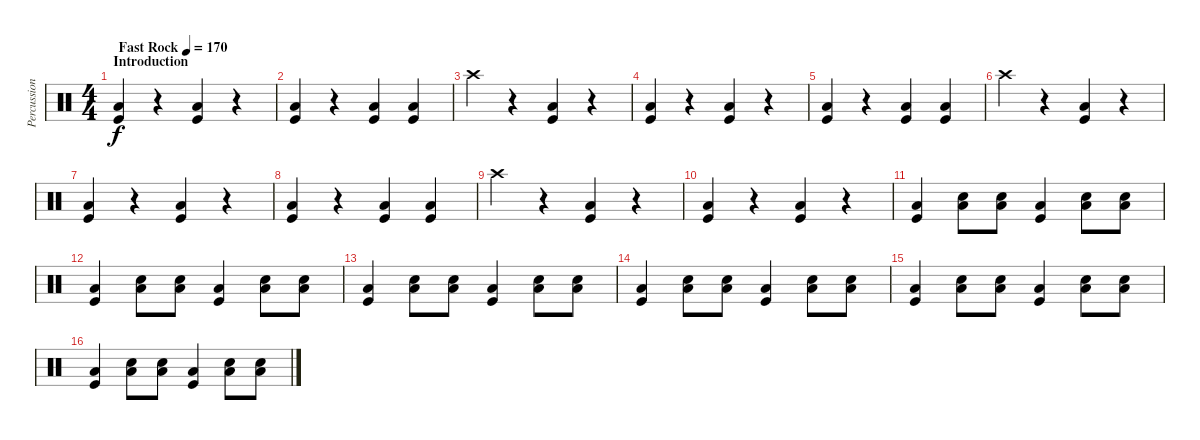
\track ("Percussion" "Percussion") {instrument percussion}
\staff {score}
\articulation defaults
\ts (4 4)
\section ("" "Introduction")
\tempo (170 "Fast Rock")
\clef neutral
\ks c
("Kick (hit)" "Low Tom (hit)").4{dy f} r.4 ("Kick (hit)" "Low Tom (hit)").4 r.4 |
("Kick (hit)" "Low Tom (hit)").4 r.4 ("Kick (hit)" "Low Tom (hit)").4 ("Kick (hit)" "Low Tom (hit)").4 |
"Crash high (hit)".4 r.4 ("Kick (hit)" "Low Tom (hit)").4 r.4 |
("Kick (hit)" "Low Tom (hit)").4 r.4 ("Kick (hit)" "Low Tom (hit)").4 r.4 |
("Kick (hit)" "Low Tom (hit)").4 r.4 ("Kick (hit)" "Low Tom (hit)").4 ("Kick (hit)" "Low Tom (hit)").4 |
"Crash high (hit)".4 r.4 ("Kick (hit)" "Low Tom (hit)").4 r.4 |
("Kick (hit)" "Low Tom (hit)").4 r.4 ("Kick (hit)" "Low Tom (hit)").4 r.4 |
("Kick (hit)" "Low Tom (hit)").4 r.4 ("Kick (hit)" "Low Tom (hit)").4 ("Kick (hit)" "Low Tom (hit)").4 |
"Crash high (hit)".4 r.4 ("Kick (hit)" "Low Tom (hit)").4 r.4 |
("Kick (hit)" "Low Tom (hit)").4 r.4 ("Kick (hit)" "Low Tom (hit)").4 r.4 |
("Kick (hit)" "Low Tom (hit)").4 ("Low Tom (hit)" "Snare (hit) 2").8 ("Low Tom (hit)" "Snare (hit) 2").8 ("Kick (hit)" "Low Tom (hit)").4 ("Low Tom (hit)" "Snare (hit) 2").8 ("Low Tom (hit)" "Snare (hit) 2").8 |
("Kick (hit)" "Low Tom (hit)").4 ("Low Tom (hit)" "Snare (hit) 2").8 ("Low Tom (hit)" "Snare (hit) 2").8 ("Kick (hit)" "Low Tom (hit)").4 ("Low Tom (hit)" "Snare (hit) 2").8 ("Low Tom (hit)" "Snare (hit) 2").8 |
("Kick (hit)" "Low Tom (hit)").4 ("Low Tom (hit)" "Snare (hit) 2").8 ("Low Tom (hit)" "Snare (hit) 2").8 ("Kick (hit)" "Low Tom (hit)").4 ("Low Tom (hit)" "Snare (hit) 2").8 ("Low Tom (hit)" "Snare (hit) 2").8 |
("Kick (hit)" "Low Tom (hit)").4 ("Low Tom (hit)" "Snare (hit) 2").8 ("Low Tom (hit)" "Snare (hit) 2").8 ("Kick (hit)" "Low Tom (hit)").4 ("Low Tom (hit)" "Snare (hit) 2").8 ("Low Tom (hit)" "Snare (hit) 2").8 |
("Kick (hit)" "Low Tom (hit)").4 ("Low Tom (hit)" "Snare (hit) 2").8 ("Low Tom (hit)" "Snare (hit) 2").8 ("Kick (hit)" "Low Tom (hit)").4 ("Low Tom (hit)" "Snare (hit) 2").8 ("Low Tom (hit)" "Snare (hit) 2").8 |
("Kick (hit)" "Low Tom (hit)").4 ("Low Tom (hit)" "Snare (hit) 2").8 ("Low Tom (hit)" "Snare (hit) 2").8 ("Kick (hit)" "Low Tom (hit)").4 ("Low Tom (hit)" "Snare (hit) 2").8 ("Low Tom (hit)" "Snare (hit) 2").8
